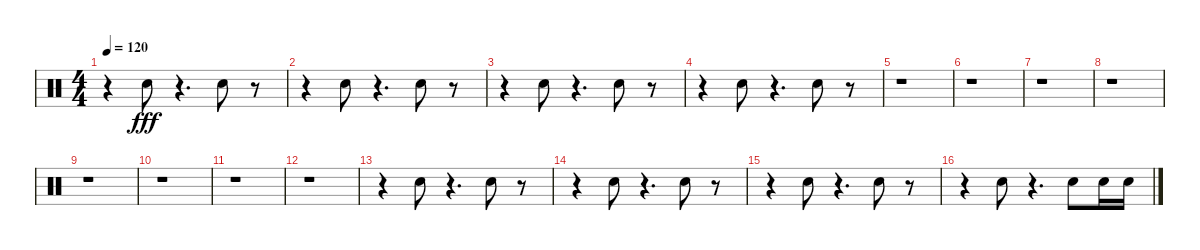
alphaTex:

\track "" {instrument percussion}
\staff {score}
\articulation defaults
\ts (4 4)
\tempo 120
\clef neutral
\ks c
r.4{dy fff} "Hand Clap (hit)".8 r.4{d} "Hand Clap (hit)".8 r.8 |
r.4 "Hand Clap (hit)".8 r.4{d} "Hand Clap (hit)".8 r.8 |
r.4 "Hand Clap (hit)".8 r.4{d} "Hand Clap (hit)".8 r.8 |
r.4 "Hand Clap (hit)".8 r.4{d} "Hand Clap (hit)".8 r.8 |
r.1 |
r.1 |
r.1 |
r.1 |
r.1 |
r.1 |
r.1 |
r.1 |
r.4 "Hand Clap (hit)".8 r.4{d} "Hand Clap (hit)".8 r.8 |
r.4 "Hand Clap (hit)".8 r.4{d} "Hand Clap (hit)".8 r.8 |
r.4 "Hand Clap (hit)".8 r.4{d} "Hand Clap (hit)".8 r.8 |
r.4 "Hand Clap (hit)".8 r.4{d} "Hand Clap (hit)".8 "Hand Clap (hit)".16 "Hand Clap (hit)".16
